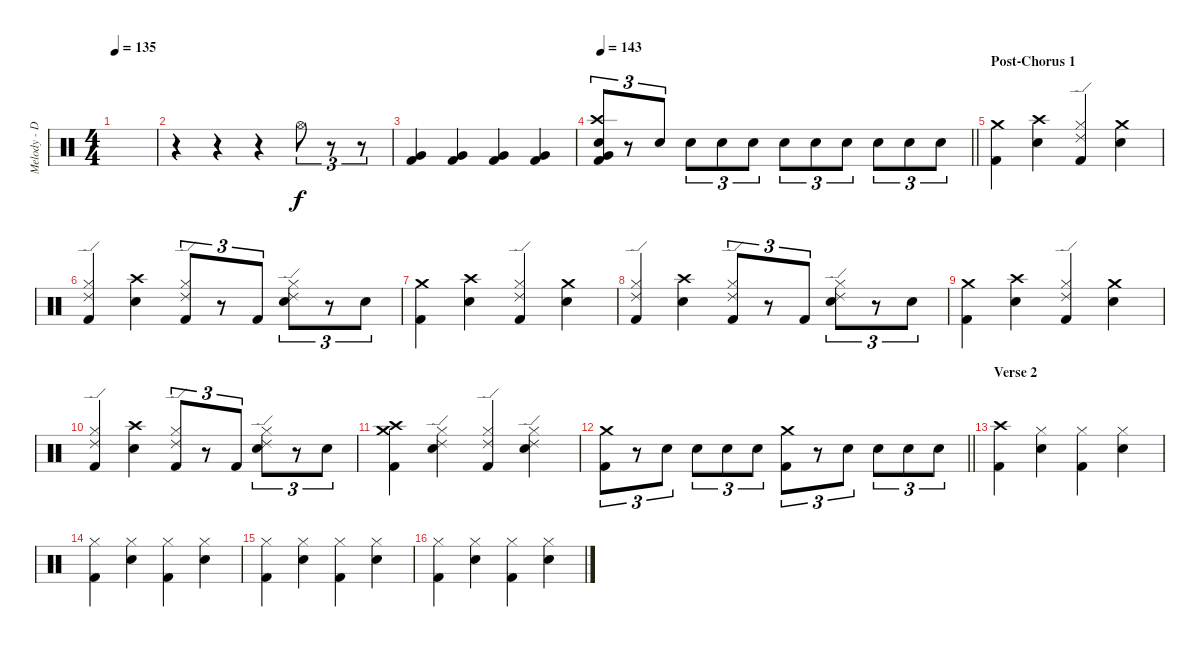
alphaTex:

\track ("Melody - Drums" "Melody - D") {instrument percussion}
\staff {score}
\articulation defaults
\ts (4 4)
\tempo 135
\clef neutral
\ks c
|
r.4 r.4 r.4 "Hi-Hat (open)".8{tu (3 2) dy f} r.8{tu (3 2)} r.8{tu (3 2)} |
("Very Low Tom (hit)" "Kick (hit) 2").4 ("Very Low Tom (hit)" "Kick (hit) 2").4 ("Very Low Tom (hit)" "Kick (hit) 2").4 ("Very Low Tom (hit)" "Kick (hit) 2").4 |
\tempo 143
\barLineRight lightlight
("Crash high (hit)" "Electric Snare (hit)" "Very Low Tom (hit)" "Kick (hit) 2").8{tu (3 2)} r.8{tu (3 2)} "Electric Snare (hit)".8{tu (3 2)} "Electric Snare (hit)".8{tu (3 2)} "Electric Snare (hit)".8{tu (3 2)} "Electric Snare (hit)".8{tu (3 2)} "Electric Snare (hit)".8{tu (3 2)} "Electric Snare (hit)".8{tu (3 2)} "Electric Snare (hit)".8{tu (3 2)} "Electric Snare (hit)".8{tu (3 2)} "Electric Snare (hit)".8{tu (3 2)} "Electric Snare (hit)".8{tu (3 2)} |
\section ("" "Post-Chorus 1")
("Crash medium (hit)" "Kick (hit) 2").4 ("Crash high (hit)" "Electric Snare (hit)").4 ("Hi-Hat (closed)" "Ride (edge) 2" "Kick (hit) 2").4 ("Crash medium (hit)" "Electric Snare (hit)").4 |
("Hi-Hat (closed)" "Ride (edge) 2" "Kick (hit) 2").4 ("Crash high (hit)" "Electric Snare (hit)").4 ("Hi-Hat (closed)" "Ride (edge) 2" "Kick (hit) 2").8{tu (3 2)} r.8{tu (3 2)} "Kick (hit) 2".8{tu (3 2)} ("Hi-Hat (closed)" "Ride (edge) 2" "Electric Snare (hit)").8{tu (3 2)} r.8{tu (3 2)} "Electric Snare (hit)".8{tu (3 2)} |
("Crash medium (hit)" "Kick (hit) 2").4 ("Crash high (hit)" "Electric Snare (hit)").4 ("Hi-Hat (closed)" "Ride (edge) 2" "Kick (hit) 2").4 ("Crash medium (hit)" "Electric Snare (hit)").4 |
("Hi-Hat (closed)" "Ride (edge) 2" "Kick (hit) 2").4 ("Crash high (hit)" "Electric Snare (hit)").4 ("Hi-Hat (closed)" "Ride (edge) 2" "Kick (hit) 2").8{tu (3 2)} r.8{tu (3 2)} "Kick (hit) 2".8{tu (3 2)} ("Hi-Hat (closed)" "Ride (edge) 2" "Electric Snare (hit)").8{tu (3 2)} r.8{tu (3 2)} "Electric Snare (hit)".8{tu (3 2)} |
("Crash medium (hit)" "Kick (hit) 2").4 ("Crash high (hit)" "Electric Snare (hit)").4 ("Hi-Hat (closed)" "Ride (edge) 2" "Kick (hit) 2").4 ("Crash medium (hit)" "Electric Snare (hit)").4 |
("Hi-Hat (closed)" "Ride (edge) 2" "Kick (hit) 2").4 ("Crash high (hit)" "Electric Snare (hit)").4 ("Hi-Hat (closed)" "Ride (edge) 2" "Kick (hit) 2").8{tu (3 2)} r.8{tu (3 2)} "Kick (hit) 2".8{tu (3 2)} ("Hi-Hat (closed)" "Ride (edge) 2" "Electric Snare (hit)").8{tu (3 2)} r.8{tu (3 2)} "Electric Snare (hit)".8{tu (3 2)} |
("Crash medium (hit)" "Crash high (hit)" "Kick (hit) 2").4 ("Hi-Hat (closed)" "Ride (edge) 2" "Electric Snare (hit)").4 ("Hi-Hat (closed)" "Ride (edge) 2" "Kick (hit) 2").4 ("Hi-Hat (closed)" "Ride (edge) 2" "Electric Snare (hit)").4 |
\barLineRight lightlight
("Crash medium (hit)" "Kick (hit) 2").8{tu (3 2)} r.8{tu (3 2)} "Electric Snare (hit)".8{tu (3 2)} "Electric Snare (hit)".8{tu (3 2)} "Electric Snare (hit)".8{tu (3 2)} "Electric Snare (hit)".8{tu (3 2)} ("Crash medium (hit)" "Kick (hit) 2").8{tu (3 2)} r.8{tu (3 2)} "Electric Snare (hit)".8{tu (3 2)} "Electric Snare (hit)".8{tu (3 2)} "Electric Snare (hit)".8{tu (3 2)} "Electric Snare (hit)".8{tu (3 2)} |
\section ("" "Verse 2")
("Crash high (hit)" "Kick (hit) 2").4 ("Hi-Hat (closed)" "Electric Snare (hit)").4 ("Hi-Hat (closed)" "Kick (hit) 2").4 ("Hi-Hat (closed)" "Electric Snare (hit)").4 |
("Hi-Hat (closed)" "Kick (hit) 2").4 ("Hi-Hat (closed)" "Electric Snare (hit)").4 ("Hi-Hat (closed)" "Kick (hit) 2").4 ("Hi-Hat (closed)" "Electric Snare (hit)").4 |
("Hi-Hat (closed)" "Kick (hit) 2").4 ("Hi-Hat (closed)" "Electric Snare (hit)").4 ("Hi-Hat (closed)" "Kick (hit) 2").4 ("Hi-Hat (closed)" "Electric Snare (hit)").4 |
("Hi-Hat (closed)" "Kick (hit) 2").4 ("Hi-Hat (closed)" "Electric Snare (hit)").4 ("Hi-Hat (closed)" "Kick (hit) 2").4 ("Hi-Hat (closed)" "Electric Snare (hit)").4
